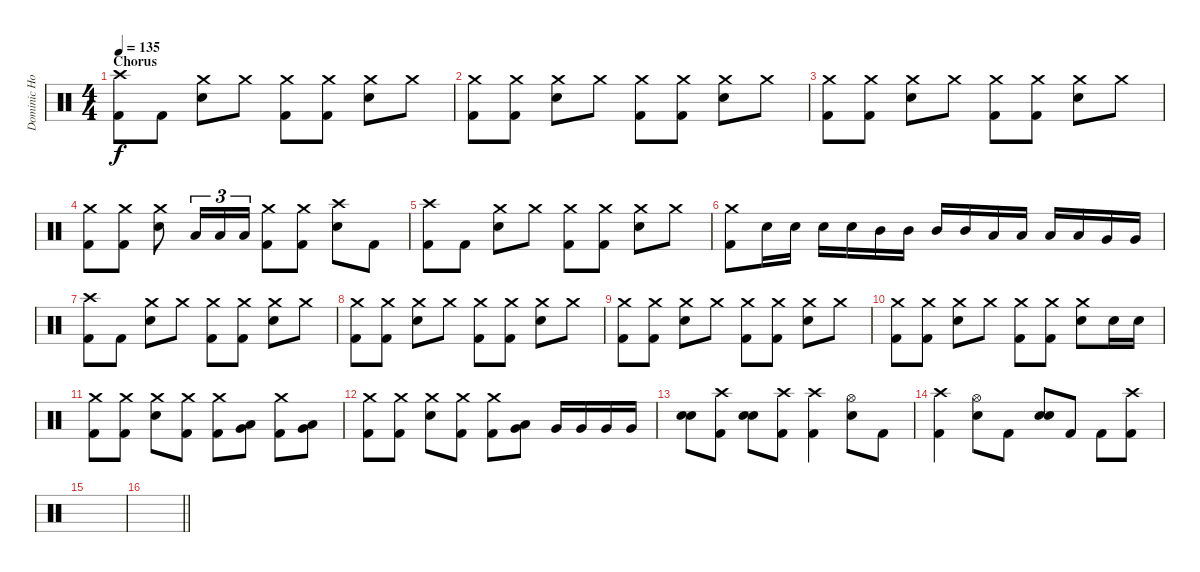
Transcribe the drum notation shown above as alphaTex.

\track ("Dominic Howard (Drums)" "Dominic Ho") {instrument percussion}
\staff {score}
\articulation defaults
\ts (4 4)
\section ("" "Chorus")
\tempo 135
\clef neutral
\ks c
("Crash high (hit)" "Kick (hit) 2").8{dy f} "Kick (hit) 2".8 ("Crash medium (hit)" "Electric Snare (hit)").8 "Crash medium (hit)".8 ("Crash medium (hit)" "Kick (hit) 2").8 ("Crash medium (hit)" "Kick (hit) 2").8 ("Crash medium (hit)" "Electric Snare (hit)").8 "Crash medium (hit)".8 |
("Crash medium (hit)" "Kick (hit) 2").8 ("Crash medium (hit)" "Kick (hit) 2").8 ("Crash medium (hit)" "Electric Snare (hit)").8 "Crash medium (hit)".8 ("Crash medium (hit)" "Kick (hit) 2").8 ("Crash medium (hit)" "Kick (hit) 2").8 ("Crash medium (hit)" "Electric Snare (hit)").8 "Crash medium (hit)".8 |
("Crash medium (hit)" "Kick (hit) 2").8 ("Crash medium (hit)" "Kick (hit) 2").8 ("Crash medium (hit)" "Electric Snare (hit)").8 "Crash medium (hit)".8 ("Crash medium (hit)" "Kick (hit) 2").8 ("Crash medium (hit)" "Kick (hit) 2").8 ("Crash medium (hit)" "Electric Snare (hit)").8 "Crash medium (hit)".8 |
("Crash medium (hit)" "Kick (hit) 2").8 ("Crash medium (hit)" "Kick (hit) 2").8 ("Crash medium (hit)" "Electric Snare (hit)").8 "Low Tom (hit)".16{tu (3 2)} "Low Tom (hit)".16{tu (3 2)} "Low Tom (hit)".16{tu (3 2)} ("Crash medium (hit)" "Kick (hit) 2").8 ("Crash medium (hit)" "Kick (hit) 2").8 ("Crash high (hit)" "Electric Snare (hit)").8 "Kick (hit) 2".8 |
("Crash high (hit)" "Kick (hit) 2").8 "Kick (hit) 2".8 ("Crash medium (hit)" "Electric Snare (hit)").8 "Crash medium (hit)".8 ("Crash medium (hit)" "Kick (hit) 2").8 ("Crash medium (hit)" "Kick (hit) 2").8 ("Crash medium (hit)" "Electric Snare (hit)").8 "Crash medium (hit)".8 |
("Crash medium (hit)" "Kick (hit) 2").8 "Electric Snare (hit)".16 "Electric Snare (hit)".16 "Electric Snare (hit)".16 "Electric Snare (hit)".16 "Mid Tom (hit)".16 "Mid Tom (hit)".16 "Mid Tom (hit)".16 "Mid Tom (hit)".16 "Low Tom (hit)".16 "Low Tom (hit)".16 "Low Tom (hit)".16 "Low Tom (hit)".16 "Very Low Tom (hit)".16 "Very Low Tom (hit)".16 |
("Crash high (hit)" "Kick (hit) 2").8 "Kick (hit) 2".8 ("Crash medium (hit)" "Electric Snare (hit)").8 "Crash medium (hit)".8 ("Crash medium (hit)" "Kick (hit) 2").8 ("Crash medium (hit)" "Kick (hit) 2").8 ("Crash medium (hit)" "Electric Snare (hit)").8 "Crash medium (hit)".8 |
("Crash medium (hit)" "Kick (hit) 2").8 ("Crash medium (hit)" "Kick (hit) 2").8 ("Crash medium (hit)" "Electric Snare (hit)").8 "Crash medium (hit)".8 ("Crash medium (hit)" "Kick (hit) 2").8 ("Crash medium (hit)" "Kick (hit) 2").8 ("Crash medium (hit)" "Electric Snare (hit)").8 "Crash medium (hit)".8 |
("Crash medium (hit)" "Kick (hit) 2").8 ("Crash medium (hit)" "Kick (hit) 2").8 ("Crash medium (hit)" "Electric Snare (hit)").8 "Crash medium (hit)".8 ("Crash medium (hit)" "Kick (hit) 2").8 ("Crash medium (hit)" "Kick (hit) 2").8 ("Crash medium (hit)" "Electric Snare (hit)").8 "Crash medium (hit)".8 |
("Crash medium (hit)" "Kick (hit) 2").8 ("Crash medium (hit)" "Kick (hit) 2").8 ("Crash medium (hit)" "Electric Snare (hit)").8 "Crash medium (hit)".8 ("Crash medium (hit)" "Kick (hit) 2").8 ("Crash medium (hit)" "Kick (hit) 2").8 ("Crash medium (hit)" "Electric Snare (hit)").8 "Electric Snare (hit)".16 "Electric Snare (hit)".16 |
("Crash medium (hit)" "Kick (hit) 2").8 ("Crash medium (hit)" "Kick (hit) 2").8 ("Crash medium (hit)" "Electric Snare (hit)").8 ("Crash medium (hit)" "Kick (hit) 2").8 ("Crash medium (hit)" "Kick (hit) 2").8 ("Very Low Tom (hit)" "Low Tom (hit)").8 ("Crash medium (hit)" "Kick (hit) 2").8 ("Very Low Tom (hit)" "Low Tom (hit)").8 |
("Crash medium (hit)" "Kick (hit) 2").8 ("Crash medium (hit)" "Kick (hit) 2").8 ("Crash medium (hit)" "Electric Snare (hit)").8 ("Crash medium (hit)" "Kick (hit) 2").8 ("Crash medium (hit)" "Kick (hit) 2").8 ("Very Low Tom (hit)" "Low Tom (hit)").8 "Very Low Tom (hit)".16 "Very Low Tom (hit)".16 "Very Low Tom (hit)".16 "Very Low Tom (hit)".16 |
("Electric Snare (hit)" "Electric Snare (hit)").8 ("Crash high (hit)" "Kick (hit) 2").8 ("Electric Snare (hit)" "Electric Snare (hit)").8 ("Crash high (hit)" "Kick (hit) 2").8 ("Crash high (hit)" "Kick (hit) 2").4 ("Hi-Hat (open)" "Electric Snare (hit)").8 "Kick (hit) 2".8 |
("Crash high (hit)" "Kick (hit) 2").4 ("Hi-Hat (open)" "Electric Snare (hit)").8 "Kick (hit) 2".8 ("Electric Snare (hit)" "Electric Snare (hit)").8 "Kick (hit) 2".8 "Kick (hit) 2".8 ("Crash high (hit)" "Kick (hit) 2").8 |
|
\barLineRight lightlight
